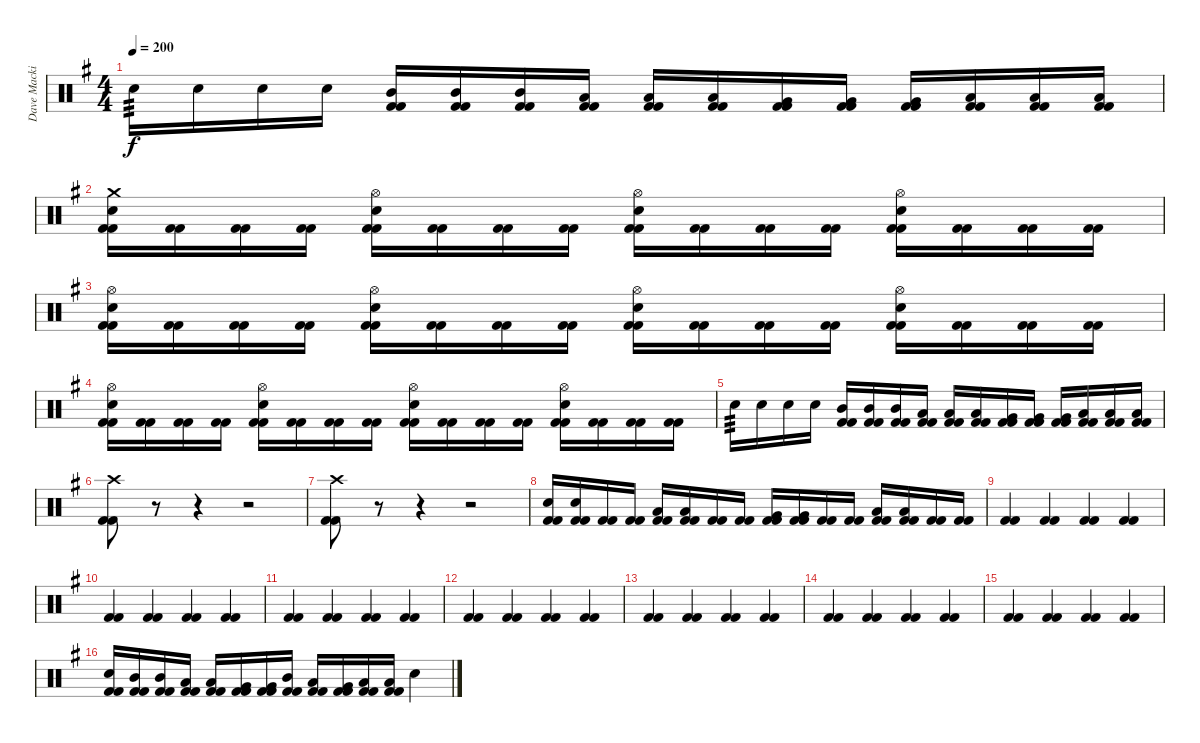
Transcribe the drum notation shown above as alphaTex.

\track ("Dave Mackintosh" "Dave Macki") {instrument percussion}
\staff {score}
\articulation defaults
\ts (4 4)
\tempo 200
\clef neutral
\ks g "Electric Snare (hit)".16{tp 3 dy f} "Electric Snare (hit)".16 "Electric Snare (hit)".16 "Electric Snare (hit)".16
("Mid Tom (hit)" "Kick (hit) 2" "Kick (hit) 2").16 ("Mid Tom (hit)" "Kick (hit) 2" "Kick (hit) 2").16 ("Mid Tom (hit)" "Kick (hit) 2" "Kick (hit) 2").16 ("Low Tom (hit)" "Kick (hit) 2" "Kick (hit) 2").16 ("Low Tom (hit)" "Kick (hit) 2" "Kick (hit) 2").16 ("Low Tom (hit)" "Kick (hit) 2" "Kick (hit) 2").16 ("Very Low Tom (hit)" "Kick (hit) 2" "Kick (hit) 2").16 ("Very Low Tom (hit)" "Kick (hit) 2" "Kick (hit) 2").16 ("Very Low Tom (hit)" "Kick (hit) 2" "Kick (hit) 2").16 ("Low Floor Tom (hit)" "Kick (hit) 2" "Kick (hit) 2").16 ("Low Floor Tom (hit)" "Kick (hit) 2" "Kick (hit) 2").16 ("Low Floor Tom (hit)" "Kick (hit) 2" "Kick (hit) 2").16 |
("Crash medium (hit)" "Electric Snare (hit)" "Kick (hit) 2" "Kick (hit) 2").16 ("Kick (hit) 2" "Kick (hit) 2").16 ("Kick (hit) 2" "Kick (hit) 2").16 ("Kick (hit) 2" "Kick (hit) 2").16 ("Hi-Hat (open)" "Electric Snare (hit)" "Kick (hit) 2" "Kick (hit) 2").16 ("Kick (hit) 2" "Kick (hit) 2").16 ("Kick (hit) 2" "Kick (hit) 2").16 ("Kick (hit) 2" "Kick (hit) 2").16 ("Hi-Hat (open)" "Electric Snare (hit)" "Kick (hit) 2" "Kick (hit) 2").16 ("Kick (hit) 2" "Kick (hit) 2").16 ("Kick (hit) 2" "Kick (hit) 2").16 ("Kick (hit) 2" "Kick (hit) 2").16 ("Hi-Hat (open)" "Electric Snare (hit)" "Kick (hit) 2" "Kick (hit) 2").16 ("Kick (hit) 2" "Kick (hit) 2").16 ("Kick (hit) 2" "Kick (hit) 2").16 ("Kick (hit) 2" "Kick (hit) 2").16 |
("Hi-Hat (open)" "Electric Snare (hit)" "Kick (hit) 2" "Kick (hit) 2").16 ("Kick (hit) 2" "Kick (hit) 2").16 ("Kick (hit) 2" "Kick (hit) 2").16 ("Kick (hit) 2" "Kick (hit) 2").16 ("Hi-Hat (open)" "Electric Snare (hit)" "Kick (hit) 2" "Kick (hit) 2").16 ("Kick (hit) 2" "Kick (hit) 2").16 ("Kick (hit) 2" "Kick (hit) 2").16 ("Kick (hit) 2" "Kick (hit) 2").16 ("Hi-Hat (open)" "Electric Snare (hit)" "Kick (hit) 2" "Kick (hit) 2").16 ("Kick (hit) 2" "Kick (hit) 2").16 ("Kick (hit) 2" "Kick (hit) 2").16 ("Kick (hit) 2" "Kick (hit) 2").16 ("Hi-Hat (open)" "Electric Snare (hit)" "Kick (hit) 2" "Kick (hit) 2").16 ("Kick (hit) 2" "Kick (hit) 2").16 ("Kick (hit) 2" "Kick (hit) 2").16 ("Kick (hit) 2" "Kick (hit) 2").16 |
("Hi-Hat (open)" "Electric Snare (hit)" "Kick (hit) 2" "Kick (hit) 2").16 ("Kick (hit) 2" "Kick (hit) 2").16 ("Kick (hit) 2" "Kick (hit) 2").16 ("Kick (hit) 2" "Kick (hit) 2").16 ("Hi-Hat (open)" "Electric Snare (hit)" "Kick (hit) 2" "Kick (hit) 2").16 ("Kick (hit) 2" "Kick (hit) 2").16 ("Kick (hit) 2" "Kick (hit) 2").16 ("Kick (hit) 2" "Kick (hit) 2").16 ("Hi-Hat (open)" "Electric Snare (hit)" "Kick (hit) 2" "Kick (hit) 2").16 ("Kick (hit) 2" "Kick (hit) 2").16 ("Kick (hit) 2" "Kick (hit) 2").16 ("Kick (hit) 2" "Kick (hit) 2").16 ("Hi-Hat (open)" "Electric Snare (hit)" "Kick (hit) 2" "Kick (hit) 2").16 ("Kick (hit) 2" "Kick (hit) 2").16 ("Kick (hit) 2" "Kick (hit) 2").16 ("Kick (hit) 2" "Kick (hit) 2").16 |
"Electric Snare (hit)".16{tp 3} "Electric Snare (hit)".16 "Electric Snare (hit)".16 "Electric Snare (hit)".16 ("Mid Tom (hit)" "Kick (hit) 2" "Kick (hit) 2").16 ("Mid Tom (hit)" "Kick (hit) 2" "Kick (hit) 2").16 ("Mid Tom (hit)" "Kick (hit) 2" "Kick (hit) 2").16 ("Low Tom (hit)" "Kick (hit) 2" "Kick (hit) 2").16 ("Low Tom (hit)" "Kick (hit) 2" "Kick (hit) 2").16 ("Low Tom (hit)" "Kick (hit) 2" "Kick (hit) 2").16 ("Very Low Tom (hit)" "Kick (hit) 2" "Kick (hit) 2").16 ("Very Low Tom (hit)" "Kick (hit) 2" "Kick (hit) 2").16 ("Very Low Tom (hit)" "Kick (hit) 2" "Kick (hit) 2").16 ("Low Floor Tom (hit)" "Kick (hit) 2" "Kick (hit) 2").16 ("Low Floor Tom (hit)" "Kick (hit) 2" "Kick (hit) 2").16 ("Low Floor Tom (hit)" "Kick (hit) 2" "Kick (hit) 2").16 |
("Crash high (hit)" "Kick (hit) 2" "Kick (hit) 2").8 r.8{volume 0} r.4 r.2 |
("Crash high (hit)" "Kick (hit) 2" "Kick (hit) 2").8{volume 16} r.8{volume 0} r.4 r.2 |
("Electric Snare (hit)" "Kick (hit) 2" "Kick (hit) 2").16{volume 16} ("Electric Snare (hit)" "Kick (hit) 2" "Kick (hit) 2").16 ("Kick (hit) 2" "Kick (hit) 2").16 ("Kick (hit) 2" "Kick (hit) 2").16 ("Low Tom (hit)" "Kick (hit) 2" "Kick (hit) 2").16 ("Low Tom (hit)" "Kick (hit) 2" "Kick (hit) 2").16 ("Kick (hit) 2" "Kick (hit) 2").16 ("Kick (hit) 2" "Kick (hit) 2").16 ("Very Low Tom (hit)" "Kick (hit) 2" "Kick (hit) 2").16 ("Very Low Tom (hit)" "Kick (hit) 2" "Kick (hit) 2").16 ("Kick (hit) 2" "Kick (hit) 2").16 ("Kick (hit) 2" "Kick (hit) 2").16 ("Low Floor Tom (hit)" "Kick (hit) 2" "Kick (hit) 2").16 ("Low Floor Tom (hit)" "Kick (hit) 2" "Kick (hit) 2").16 ("Kick (hit) 2" "Kick (hit) 2").16 ("Kick (hit) 2" "Kick (hit) 2").16 |
("Kick (hit) 2" "Kick (hit) 2").4 ("Kick (hit) 2" "Kick (hit) 2").4 ("Kick (hit) 2" "Kick (hit) 2").4 ("Kick (hit) 2" "Kick (hit) 2").4 |
("Kick (hit) 2" "Kick (hit) 2").4 ("Kick (hit) 2" "Kick (hit) 2").4 ("Kick (hit) 2" "Kick (hit) 2").4 ("Kick (hit) 2" "Kick (hit) 2").4 |
("Kick (hit) 2" "Kick (hit) 2").4 ("Kick (hit) 2" "Kick (hit) 2").4 ("Kick (hit) 2" "Kick (hit) 2").4 ("Kick (hit) 2" "Kick (hit) 2").4 |
("Kick (hit) 2" "Kick (hit) 2").4 ("Kick (hit) 2" "Kick (hit) 2").4 ("Kick (hit) 2" "Kick (hit) 2").4 ("Kick (hit) 2" "Kick (hit) 2").4 |
("Kick (hit) 2" "Kick (hit) 2").4 ("Kick (hit) 2" "Kick (hit) 2").4 ("Kick (hit) 2" "Kick (hit) 2").4 ("Kick (hit) 2" "Kick (hit) 2").4 |
("Kick (hit) 2" "Kick (hit) 2").4 ("Kick (hit) 2" "Kick (hit) 2").4 ("Kick (hit) 2" "Kick (hit) 2").4 ("Kick (hit) 2" "Kick (hit) 2").4 |
("Kick (hit) 2" "Kick (hit) 2").4 ("Kick (hit) 2" "Kick (hit) 2").4 ("Kick (hit) 2" "Kick (hit) 2").4 ("Kick (hit) 2" "Kick (hit) 2").4 |
("Electric Snare (hit)" "Kick (hit) 2" "Kick (hit) 2").16 ("Mid Tom (hit)" "Kick (hit) 2" "Kick (hit) 2").16 ("Mid Tom (hit)" "Kick (hit) 2" "Kick (hit) 2").16 ("Low Tom (hit)" "Kick (hit) 2" "Kick (hit) 2").16 ("Low Tom (hit)" "Kick (hit) 2" "Kick (hit) 2").16 ("Very Low Tom (hit)" "Kick (hit) 2" "Kick (hit) 2").16 ("Very Low Tom (hit)" "Kick (hit) 2" "Kick (hit) 2").16 ("Mid Tom (hit)" "Kick (hit) 2" "Kick (hit) 2").16 ("Low Tom (hit)" "Kick (hit) 2" "Kick (hit) 2").16 ("Very Low Tom (hit)" "Kick (hit) 2" "Kick (hit) 2").16 ("Low Floor Tom (hit)" "Kick (hit) 2" "Kick (hit) 2").16 ("Low Floor Tom (hit)" "Kick (hit) 2" "Kick (hit) 2").16 "Electric Snare (hit)".4
